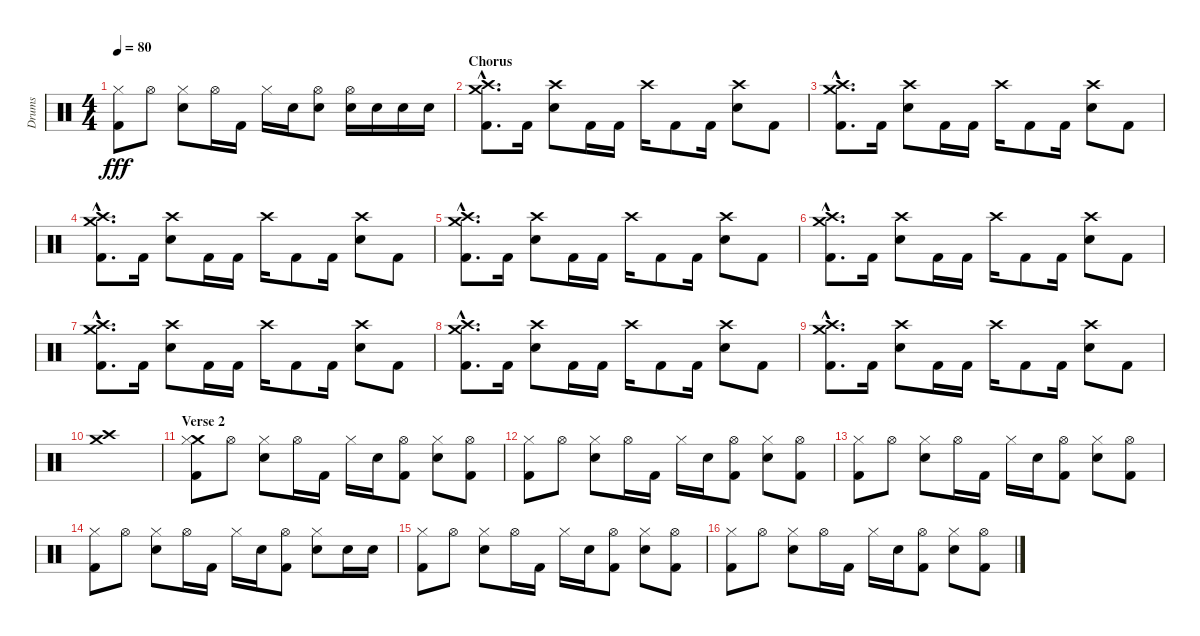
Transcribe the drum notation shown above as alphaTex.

\track ("Drums" "Drums") {instrument percussion}
\staff {score}
\articulation defaults
\ts (4 4)
\tempo 80
\clef neutral
\ks c
("Hi-Hat (closed)" "Kick (hit) 2").8{dy fff} "Hi-Hat (open)".8 ("Hi-Hat (closed)" "Electric Snare (hit)").8 "Hi-Hat (open)".16 "Kick (hit) 2".16 "Hi-Hat (closed)".16 "Electric Snare (hit)".16 ("Hi-Hat (open)" "Electric Snare (hit)").8 ("Hi-Hat (open)" "Electric Snare (hit)").16 "Electric Snare (hit)".16 "Electric Snare (hit)".16 "Electric Snare (hit)".16 |
\section ("" "Chorus")
("Crash high (hit)"{hac} "Crash medium (hit)"{hac} "Kick (hit) 2"{hac}).8{d} "Kick (hit) 2".16 ("Crash high (hit)" "Electric Snare (hit)").8 "Kick (hit) 2".16 "Kick (hit) 2".16 "Crash high (hit)".16 "Kick (hit) 2".8 "Kick (hit) 2".16 ("Crash high (hit)" "Electric Snare (hit)").8 "Kick (hit) 2".8 |
("Crash high (hit)"{hac} "Crash medium (hit)"{hac} "Kick (hit) 2"{hac}).8{d} "Kick (hit) 2".16 ("Crash high (hit)" "Electric Snare (hit)").8 "Kick (hit) 2".16 "Kick (hit) 2".16 "Crash high (hit)".16 "Kick (hit) 2".8 "Kick (hit) 2".16 ("Crash high (hit)" "Electric Snare (hit)").8 "Kick (hit) 2".8 |
("Crash high (hit)"{hac} "Crash medium (hit)"{hac} "Kick (hit) 2"{hac}).8{d} "Kick (hit) 2".16 ("Crash high (hit)" "Electric Snare (hit)").8 "Kick (hit) 2".16 "Kick (hit) 2".16 "Crash high (hit)".16 "Kick (hit) 2".8 "Kick (hit) 2".16 ("Crash high (hit)" "Electric Snare (hit)").8 "Kick (hit) 2".8 |
("Crash high (hit)"{hac} "Crash medium (hit)"{hac} "Kick (hit) 2"{hac}).8{d} "Kick (hit) 2".16 ("Crash high (hit)" "Electric Snare (hit)").8 "Kick (hit) 2".16 "Kick (hit) 2".16 "Crash high (hit)".16 "Kick (hit) 2".8 "Kick (hit) 2".16 ("Crash high (hit)" "Electric Snare (hit)").8 "Kick (hit) 2".8 |
("Crash high (hit)"{hac} "Crash medium (hit)"{hac} "Kick (hit) 2"{hac}).8{d} "Kick (hit) 2".16 ("Crash high (hit)" "Electric Snare (hit)").8 "Kick (hit) 2".16 "Kick (hit) 2".16 "Crash high (hit)".16 "Kick (hit) 2".8 "Kick (hit) 2".16 ("Crash high (hit)" "Electric Snare (hit)").8 "Kick (hit) 2".8 |
("Crash high (hit)"{hac} "Crash medium (hit)"{hac} "Kick (hit) 2"{hac}).8{d} "Kick (hit) 2".16 ("Crash high (hit)" "Electric Snare (hit)").8 "Kick (hit) 2".16 "Kick (hit) 2".16 "Crash high (hit)".16 "Kick (hit) 2".8 "Kick (hit) 2".16 ("Crash high (hit)" "Electric Snare (hit)").8 "Kick (hit) 2".8 |
("Crash high (hit)"{hac} "Crash medium (hit)"{hac} "Kick (hit) 2"{hac}).8{d} "Kick (hit) 2".16 ("Crash high (hit)" "Electric Snare (hit)").8 "Kick (hit) 2".16 "Kick (hit) 2".16 "Crash high (hit)".16 "Kick (hit) 2".8 "Kick (hit) 2".16 ("Crash high (hit)" "Electric Snare (hit)").8 "Kick (hit) 2".8 |
("Crash high (hit)"{hac} "Crash medium (hit)"{hac} "Kick (hit) 2"{hac}).8{d} "Kick (hit) 2".16 ("Crash high (hit)" "Electric Snare (hit)").8 "Kick (hit) 2".16 "Kick (hit) 2".16 "Crash high (hit)".16 "Kick (hit) 2".8 "Kick (hit) 2".16 ("Crash high (hit)" "Electric Snare (hit)").8 "Kick (hit) 2".8 |
("Crash high (hit)" "Crash medium (hit)").1 |
\section ("" "Verse 2")
("Crash medium (hit)" "Hi-Hat (closed)" "Kick (hit) 2").8 "Hi-Hat (open)".8 ("Hi-Hat (closed)" "Electric Snare (hit)").8 "Hi-Hat (open)".16 "Kick (hit) 2".16 "Hi-Hat (closed)".16 "Electric Snare (hit)".16 ("Hi-Hat (open)" "Kick (hit) 2").8 ("Hi-Hat (closed)" "Electric Snare (hit)").8 ("Hi-Hat (open)" "Kick (hit) 2").8 |
("Hi-Hat (closed)" "Kick (hit) 2").8 "Hi-Hat (open)".8 ("Hi-Hat (closed)" "Electric Snare (hit)").8 "Hi-Hat (open)".16 "Kick (hit) 2".16 "Hi-Hat (closed)".16 "Electric Snare (hit)".16 ("Hi-Hat (open)" "Kick (hit) 2").8 ("Hi-Hat (closed)" "Electric Snare (hit)").8 ("Hi-Hat (open)" "Kick (hit) 2").8 |
("Hi-Hat (closed)" "Kick (hit) 2").8 "Hi-Hat (open)".8 ("Hi-Hat (closed)" "Electric Snare (hit)").8 "Hi-Hat (open)".16 "Kick (hit) 2".16 "Hi-Hat (closed)".16 "Electric Snare (hit)".16 ("Hi-Hat (open)" "Kick (hit) 2").8 ("Hi-Hat (closed)" "Electric Snare (hit)").8 ("Hi-Hat (open)" "Kick (hit) 2").8 |
("Hi-Hat (closed)" "Kick (hit) 2").8 "Hi-Hat (open)".8 ("Hi-Hat (closed)" "Electric Snare (hit)").8 "Hi-Hat (open)".16 "Kick (hit) 2".16 "Hi-Hat (closed)".16 "Electric Snare (hit)".16 ("Hi-Hat (open)" "Kick (hit) 2").8 ("Hi-Hat (closed)" "Electric Snare (hit)").8 "Electric Snare (hit)".16 "Electric Snare (hit)".16 |
("Hi-Hat (closed)" "Kick (hit) 2").8 "Hi-Hat (open)".8 ("Hi-Hat (closed)" "Electric Snare (hit)").8 "Hi-Hat (open)".16 "Kick (hit) 2".16 "Hi-Hat (closed)".16 "Electric Snare (hit)".16 ("Hi-Hat (open)" "Kick (hit) 2").8 ("Hi-Hat (closed)" "Electric Snare (hit)").8 ("Hi-Hat (open)" "Kick (hit) 2").8 |
("Hi-Hat (closed)" "Kick (hit) 2").8 "Hi-Hat (open)".8 ("Hi-Hat (closed)" "Electric Snare (hit)").8 "Hi-Hat (open)".16 "Kick (hit) 2".16 "Hi-Hat (closed)".16 "Electric Snare (hit)".16 ("Hi-Hat (open)" "Kick (hit) 2").8 ("Hi-Hat (closed)" "Electric Snare (hit)").8 ("Hi-Hat (open)" "Kick (hit) 2").8
